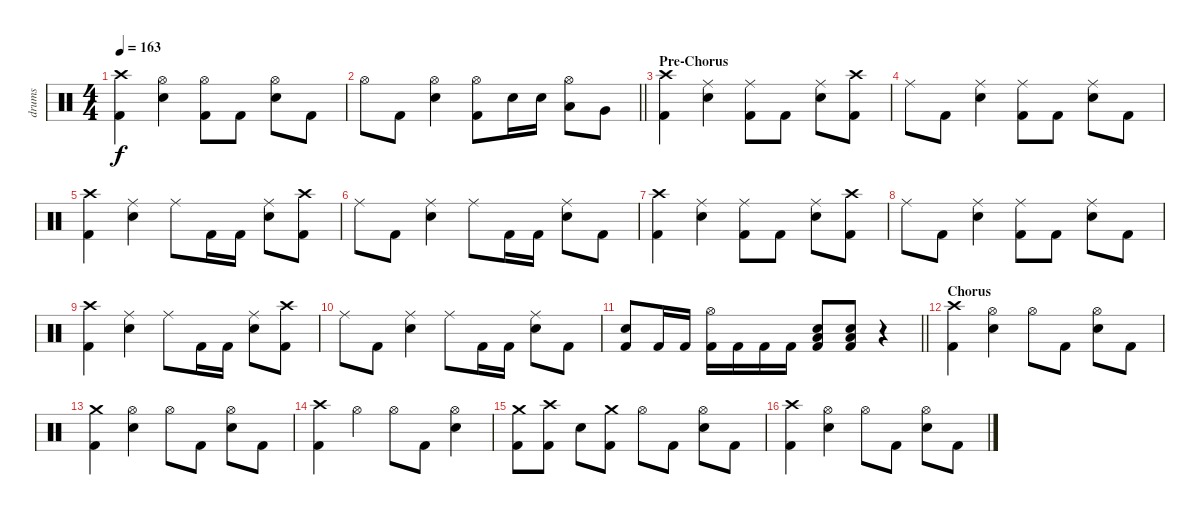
\track ("drums" "drums") {instrument percussion}
\staff {score}
\articulation defaults
\ts (4 4)
\tempo 163
\clef neutral
\ks c
("Crash high (hit)" "Kick (hit) 2").4{dy f} ("Hi-Hat (open)" "Snare (hit) 2").4 ("Hi-Hat (open)" "Kick (hit) 2").8 "Kick (hit) 2".8 ("Hi-Hat (open)" "Snare (hit) 2").8 "Kick (hit) 2".8 |
\barLineRight lightlight "Hi-Hat (open)".8 "Kick (hit) 2".8
("Hi-Hat (open)" "Snare (hit) 2").4 ("Hi-Hat (open)" "Kick (hit) 2").8 "Snare (hit) 2".16 "Snare (hit) 2".16 ("Hi-Hat (open)" "Low Tom (hit)").8 "Very Low Tom (hit)".8 |
\section ("" "Pre-Chorus")
("Crash high (hit)" "Kick (hit) 2").4 ("Ride (middle)" "Snare (hit) 2").4 ("Ride (middle)" "Kick (hit) 2").8 "Kick (hit) 2".8 ("Ride (middle)" "Snare (hit) 2").8 ("Crash high (hit)" "Kick (hit) 2").8 |
"Ride (middle)".8 "Kick (hit) 2".8 ("Ride (middle)" "Snare (hit) 2").4 ("Ride (middle)" "Kick (hit) 2").8 "Kick (hit) 2".8 ("Ride (middle)" "Snare (hit) 2").8 "Kick (hit) 2".8 |
("Crash high (hit)" "Kick (hit) 2").4 ("Ride (middle)" "Snare (hit) 2").4 "Ride (middle)".8 "Kick (hit) 2".16 "Kick (hit) 2".16 ("Ride (middle)" "Snare (hit) 2").8 ("Crash high (hit)" "Kick (hit) 2").8 |
"Ride (middle)".8 "Kick (hit) 2".8 ("Ride (middle)" "Snare (hit) 2").4 "Ride (middle)".8 "Kick (hit) 2".16 "Kick (hit) 2".16 ("Ride (middle)" "Snare (hit) 2").8 "Kick (hit) 2".8 |
("Crash high (hit)" "Kick (hit) 2").4 ("Ride (middle)" "Snare (hit) 2").4 ("Ride (middle)" "Kick (hit) 2").8 "Kick (hit) 2".8 ("Ride (middle)" "Snare (hit) 2").8 ("Crash high (hit)" "Kick (hit) 2").8 |
"Ride (middle)".8 "Kick (hit) 2".8 ("Ride (middle)" "Snare (hit) 2").4 ("Ride (middle)" "Kick (hit) 2").8 "Kick (hit) 2".8 ("Ride (middle)" "Snare (hit) 2").8 "Kick (hit) 2".8 |
("Crash high (hit)" "Kick (hit) 2").4 ("Ride (middle)" "Snare (hit) 2").4 "Ride (middle)".8 "Kick (hit) 2".16 "Kick (hit) 2".16 ("Ride (middle)" "Snare (hit) 2").8 ("Crash high (hit)" "Kick (hit) 2").8 |
"Ride (middle)".8 "Kick (hit) 2".8 ("Ride (middle)" "Snare (hit) 2").4 "Ride (middle)".8 "Kick (hit) 2".16 "Kick (hit) 2".16 ("Ride (middle)" "Snare (hit) 2").8 "Kick (hit) 2".8 |
\barLineRight lightlight
("Snare (hit) 2" "Kick (hit) 2").8 "Kick (hit) 2".16 "Kick (hit) 2".16 ("Hi-Hat (open)" "Kick (hit) 2").16 "Kick (hit) 2".16 "Kick (hit) 2".16 "Kick (hit) 2".16 ("Low Floor Tom (hit)" "Snare (hit) 2" "Kick (hit) 2").8 ("Low Floor Tom (hit)" "Snare (hit) 2" "Kick (hit) 2").8 r.4 |
\section ("" "Chorus")
("Crash high (hit)" "Kick (hit) 2").4 ("Hi-Hat (open)" "Snare (hit) 2").4 "Hi-Hat (open)".8 "Kick (hit) 2".8 ("Hi-Hat (open)" "Snare (hit) 2").8 "Kick (hit) 2".8 |
("Crash medium (hit)" "Kick (hit) 2").4 ("Hi-Hat (open)" "Snare (hit) 2").4 "Hi-Hat (open)".8 "Kick (hit) 2".8 ("Hi-Hat (open)" "Snare (hit) 2").8 "Kick (hit) 2".8 |
("Crash high (hit)" "Kick (hit) 2").4 "Hi-Hat (open)".4 "Hi-Hat (open)".8 "Kick (hit) 2".8 ("Hi-Hat (open)" "Snare (hit) 2").4 |
("Crash medium (hit)" "Kick (hit) 2").8 ("Crash high (hit)" "Kick (hit) 2").8 "Snare (hit) 2".8 ("Crash medium (hit)" "Kick (hit) 2").8 "Hi-Hat (open)".8 "Kick (hit) 2".8 ("Hi-Hat (open)" "Snare (hit) 2").8 "Kick (hit) 2".8 |
("Crash high (hit)" "Kick (hit) 2").4 ("Hi-Hat (open)" "Snare (hit) 2").4 "Hi-Hat (open)".8 "Kick (hit) 2".8 ("Hi-Hat (open)" "Snare (hit) 2").8 "Kick (hit) 2".8
